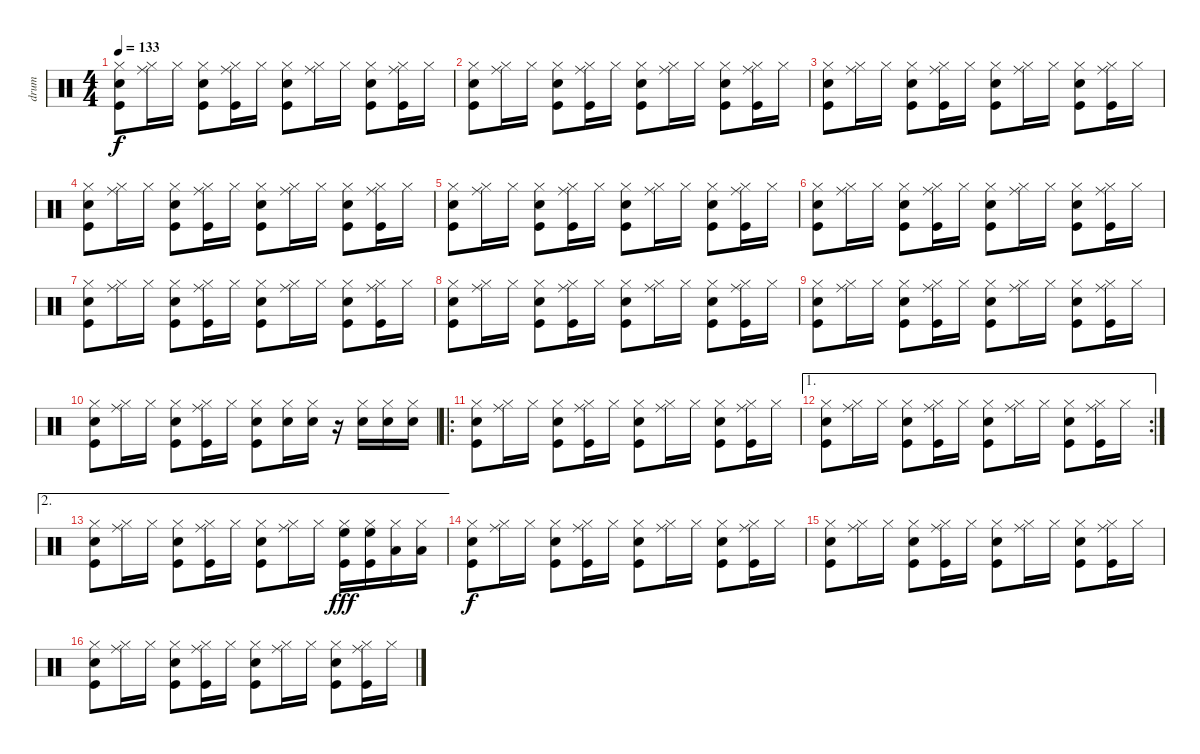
\track ("drum" "drum") {instrument percussion}
\staff {score}
\articulation defaults
\ts (4 4)
\tempo 133
\clef neutral
\ks c
("Hi-Hat (closed)" "Snare (hit) 2" "Kick (hit)").8{dy f} ("Hi-Hat (closed)" "Ride (middle)").16 "Hi-Hat (closed)".16 ("Hi-Hat (closed)" "Snare (hit) 2" "Kick (hit)").8 ("Hi-Hat (closed)" "Ride (middle)" "Kick (hit)").16 "Hi-Hat (closed)".16 ("Hi-Hat (closed)" "Snare (hit) 2" "Kick (hit)").8 ("Hi-Hat (closed)" "Ride (middle)").16 "Hi-Hat (closed)".16 ("Hi-Hat (closed)" "Snare (hit) 2" "Kick (hit)").8 ("Hi-Hat (closed)" "Ride (middle)" "Kick (hit)").16 "Hi-Hat (closed)".16 |
("Hi-Hat (closed)" "Snare (hit) 2" "Kick (hit)").8 ("Hi-Hat (closed)" "Ride (middle)").16 "Hi-Hat (closed)".16 ("Hi-Hat (closed)" "Snare (hit) 2" "Kick (hit)").8 ("Hi-Hat (closed)" "Ride (middle)" "Kick (hit)").16 "Hi-Hat (closed)".16 ("Hi-Hat (closed)" "Snare (hit) 2" "Kick (hit)").8 ("Hi-Hat (closed)" "Ride (middle)").16 "Hi-Hat (closed)".16 ("Hi-Hat (closed)" "Snare (hit) 2" "Kick (hit)").8 ("Hi-Hat (closed)" "Ride (middle)" "Kick (hit)").16 "Hi-Hat (closed)".16 |
("Hi-Hat (closed)" "Snare (hit) 2" "Kick (hit)").8 ("Hi-Hat (closed)" "Ride (middle)").16 "Hi-Hat (closed)".16 ("Hi-Hat (closed)" "Snare (hit) 2" "Kick (hit)").8 ("Hi-Hat (closed)" "Ride (middle)" "Kick (hit)").16 "Hi-Hat (closed)".16 ("Hi-Hat (closed)" "Snare (hit) 2" "Kick (hit)").8 ("Hi-Hat (closed)" "Ride (middle)").16 "Hi-Hat (closed)".16 ("Hi-Hat (closed)" "Snare (hit) 2" "Kick (hit)").8 ("Hi-Hat (closed)" "Ride (middle)" "Kick (hit)").16 "Hi-Hat (closed)".16 |
("Hi-Hat (closed)" "Snare (hit) 2" "Kick (hit)").8 ("Hi-Hat (closed)" "Ride (middle)").16 "Hi-Hat (closed)".16 ("Hi-Hat (closed)" "Snare (hit) 2" "Kick (hit)").8 ("Hi-Hat (closed)" "Ride (middle)" "Kick (hit)").16 "Hi-Hat (closed)".16 ("Hi-Hat (closed)" "Snare (hit) 2" "Kick (hit)").8 ("Hi-Hat (closed)" "Ride (middle)").16 "Hi-Hat (closed)".16 ("Hi-Hat (closed)" "Snare (hit) 2" "Kick (hit)").8 ("Hi-Hat (closed)" "Ride (middle)" "Kick (hit)").16 "Hi-Hat (closed)".16 |
("Hi-Hat (closed)" "Snare (hit) 2" "Kick (hit)").8 ("Hi-Hat (closed)" "Ride (middle)").16 "Hi-Hat (closed)".16 ("Hi-Hat (closed)" "Snare (hit) 2" "Kick (hit)").8 ("Hi-Hat (closed)" "Ride (middle)" "Kick (hit)").16 "Hi-Hat (closed)".16 ("Hi-Hat (closed)" "Snare (hit) 2" "Kick (hit)").8 ("Hi-Hat (closed)" "Ride (middle)").16 "Hi-Hat (closed)".16 ("Hi-Hat (closed)" "Snare (hit) 2" "Kick (hit)").8 ("Hi-Hat (closed)" "Ride (middle)" "Kick (hit)").16 "Hi-Hat (closed)".16 |
("Hi-Hat (closed)" "Snare (hit) 2" "Kick (hit)").8 ("Hi-Hat (closed)" "Ride (middle)").16 "Hi-Hat (closed)".16 ("Hi-Hat (closed)" "Snare (hit) 2" "Kick (hit)").8 ("Hi-Hat (closed)" "Ride (middle)" "Kick (hit)").16 "Hi-Hat (closed)".16 ("Hi-Hat (closed)" "Snare (hit) 2" "Kick (hit)").8 ("Hi-Hat (closed)" "Ride (middle)").16 "Hi-Hat (closed)".16 ("Hi-Hat (closed)" "Snare (hit) 2" "Kick (hit)").8 ("Hi-Hat (closed)" "Ride (middle)" "Kick (hit)").16 "Hi-Hat (closed)".16 |
("Hi-Hat (closed)" "Snare (hit) 2" "Kick (hit)").8 ("Hi-Hat (closed)" "Ride (middle)").16 "Hi-Hat (closed)".16 ("Hi-Hat (closed)" "Snare (hit) 2" "Kick (hit)").8 ("Hi-Hat (closed)" "Ride (middle)" "Kick (hit)").16 "Hi-Hat (closed)".16 ("Hi-Hat (closed)" "Snare (hit) 2" "Kick (hit)").8 ("Hi-Hat (closed)" "Ride (middle)").16 "Hi-Hat (closed)".16 ("Hi-Hat (closed)" "Snare (hit) 2" "Kick (hit)").8 ("Hi-Hat (closed)" "Ride (middle)" "Kick (hit)").16 "Hi-Hat (closed)".16 |
("Hi-Hat (closed)" "Snare (hit) 2" "Kick (hit)").8 ("Hi-Hat (closed)" "Ride (middle)").16 "Hi-Hat (closed)".16 ("Hi-Hat (closed)" "Snare (hit) 2" "Kick (hit)").8 ("Hi-Hat (closed)" "Ride (middle)" "Kick (hit)").16 "Hi-Hat (closed)".16 ("Hi-Hat (closed)" "Snare (hit) 2" "Kick (hit)").8 ("Hi-Hat (closed)" "Ride (middle)").16 "Hi-Hat (closed)".16 ("Hi-Hat (closed)" "Snare (hit) 2" "Kick (hit)").8 ("Hi-Hat (closed)" "Ride (middle)" "Kick (hit)").16 "Hi-Hat (closed)".16 |
("Hi-Hat (closed)" "Snare (hit) 2" "Kick (hit)").8 ("Hi-Hat (closed)" "Ride (middle)").16 "Hi-Hat (closed)".16 ("Hi-Hat (closed)" "Snare (hit) 2" "Kick (hit)").8 ("Hi-Hat (closed)" "Ride (middle)" "Kick (hit)").16 "Hi-Hat (closed)".16 ("Hi-Hat (closed)" "Snare (hit) 2" "Kick (hit)").8 ("Hi-Hat (closed)" "Ride (middle)").16 "Hi-Hat (closed)".16 ("Hi-Hat (closed)" "Snare (hit) 2" "Kick (hit)").8 ("Hi-Hat (closed)" "Ride (middle)" "Kick (hit)").16 "Hi-Hat (closed)".16 |
("Hi-Hat (closed)" "Snare (hit) 2" "Kick (hit)").8 ("Hi-Hat (closed)" "Ride (middle)").16 "Hi-Hat (closed)".16 ("Hi-Hat (closed)" "Snare (hit) 2" "Kick (hit)").8 ("Hi-Hat (closed)" "Ride (middle)" "Kick (hit)").16 "Hi-Hat (closed)".16 ("Hi-Hat (closed)" "Snare (hit) 2" "Kick (hit)").8 ("Hi-Hat (closed)" "Snare (hit) 2").16 ("Hi-Hat (closed)" "Snare (hit) 2").16 r.16 ("Hi-Hat (closed)" "Snare (hit) 2").16 ("Hi-Hat (closed)" "Snare (hit) 2").16 ("Hi-Hat (closed)" "Snare (hit) 2").16 |
\ro
("Hi-Hat (closed)" "Snare (hit) 2" "Kick (hit)").8 ("Hi-Hat (closed)" "Ride (middle)").16 "Hi-Hat (closed)".16 ("Hi-Hat (closed)" "Snare (hit) 2" "Kick (hit)").8 ("Hi-Hat (closed)" "Ride (middle)" "Kick (hit)").16 "Hi-Hat (closed)".16 ("Hi-Hat (closed)" "Snare (hit) 2" "Kick (hit)").8 ("Hi-Hat (closed)" "Ride (middle)").16 "Hi-Hat (closed)".16 ("Hi-Hat (closed)" "Snare (hit) 2" "Kick (hit)").8 ("Hi-Hat (closed)" "Ride (middle)" "Kick (hit)").16 "Hi-Hat (closed)".16 |
\ae 1
\rc 2
("Hi-Hat (closed)" "Snare (hit) 2" "Kick (hit)").8 ("Hi-Hat (closed)" "Ride (middle)").16 "Hi-Hat (closed)".16 ("Hi-Hat (closed)" "Snare (hit) 2" "Kick (hit)").8 ("Hi-Hat (closed)" "Ride (middle)" "Kick (hit)").16 "Hi-Hat (closed)".16 ("Hi-Hat (closed)" "Snare (hit) 2" "Kick (hit)").8 ("Hi-Hat (closed)" "Ride (middle)").16 "Hi-Hat (closed)".16 ("Hi-Hat (closed)" "Snare (hit) 2" "Kick (hit)").8 ("Hi-Hat (closed)" "Ride (middle)" "Kick (hit)").16 "Hi-Hat (closed)".16 |
\ae 2
("Hi-Hat (closed)" "Snare (hit) 2" "Kick (hit)").8 ("Hi-Hat (closed)" "Ride (middle)").16 "Hi-Hat (closed)".16 ("Hi-Hat (closed)" "Snare (hit) 2" "Kick (hit)").8 ("Hi-Hat (closed)" "Ride (middle)" "Kick (hit)").16 "Hi-Hat (closed)".16 ("Hi-Hat (closed)" "Snare (hit) 2" "Kick (hit)").8 ("Hi-Hat (closed)" "Ride (middle)").16 "Hi-Hat (closed)".16 ("Hi-Hat (closed)" "High Floor Tom (hit)" "Kick (hit)").16{dy fff} ("Hi-Hat (closed)" "High Floor Tom (hit)" "Kick (hit)").16 ("Hi-Hat (closed)" "Low Tom (hit)").16 ("Hi-Hat (closed)" "Low Tom (hit)").16 |
("Hi-Hat (closed)" "Snare (hit) 2" "Kick (hit)").8{dy f} ("Hi-Hat (closed)" "Ride (middle)").16 "Hi-Hat (closed)".16 ("Hi-Hat (closed)" "Snare (hit) 2" "Kick (hit)").8 ("Hi-Hat (closed)" "Ride (middle)" "Kick (hit)").16 "Hi-Hat (closed)".16 ("Hi-Hat (closed)" "Snare (hit) 2" "Kick (hit)").8 ("Hi-Hat (closed)" "Ride (middle)").16 "Hi-Hat (closed)".16 ("Hi-Hat (closed)" "Snare (hit) 2" "Kick (hit)").8 ("Hi-Hat (closed)" "Ride (middle)" "Kick (hit)").16 "Hi-Hat (closed)".16 |
("Hi-Hat (closed)" "Snare (hit) 2" "Kick (hit)").8 ("Hi-Hat (closed)" "Ride (middle)").16 "Hi-Hat (closed)".16 ("Hi-Hat (closed)" "Snare (hit) 2" "Kick (hit)").8 ("Hi-Hat (closed)" "Ride (middle)" "Kick (hit)").16 "Hi-Hat (closed)".16 ("Hi-Hat (closed)" "Snare (hit) 2" "Kick (hit)").8 ("Hi-Hat (closed)" "Ride (middle)").16 "Hi-Hat (closed)".16 ("Hi-Hat (closed)" "Snare (hit) 2" "Kick (hit)").8 ("Hi-Hat (closed)" "Ride (middle)" "Kick (hit)").16 "Hi-Hat (closed)".16 |
("Hi-Hat (closed)" "Snare (hit) 2" "Kick (hit)").8 ("Hi-Hat (closed)" "Ride (middle)").16 "Hi-Hat (closed)".16 ("Hi-Hat (closed)" "Snare (hit) 2" "Kick (hit)").8 ("Hi-Hat (closed)" "Ride (middle)" "Kick (hit)").16 "Hi-Hat (closed)".16 ("Hi-Hat (closed)" "Snare (hit) 2" "Kick (hit)").8 ("Hi-Hat (closed)" "Ride (middle)").16 "Hi-Hat (closed)".16 ("Hi-Hat (closed)" "Snare (hit) 2" "Kick (hit)").8 ("Hi-Hat (closed)" "Ride (middle)" "Kick (hit)").16 "Hi-Hat (closed)".16
